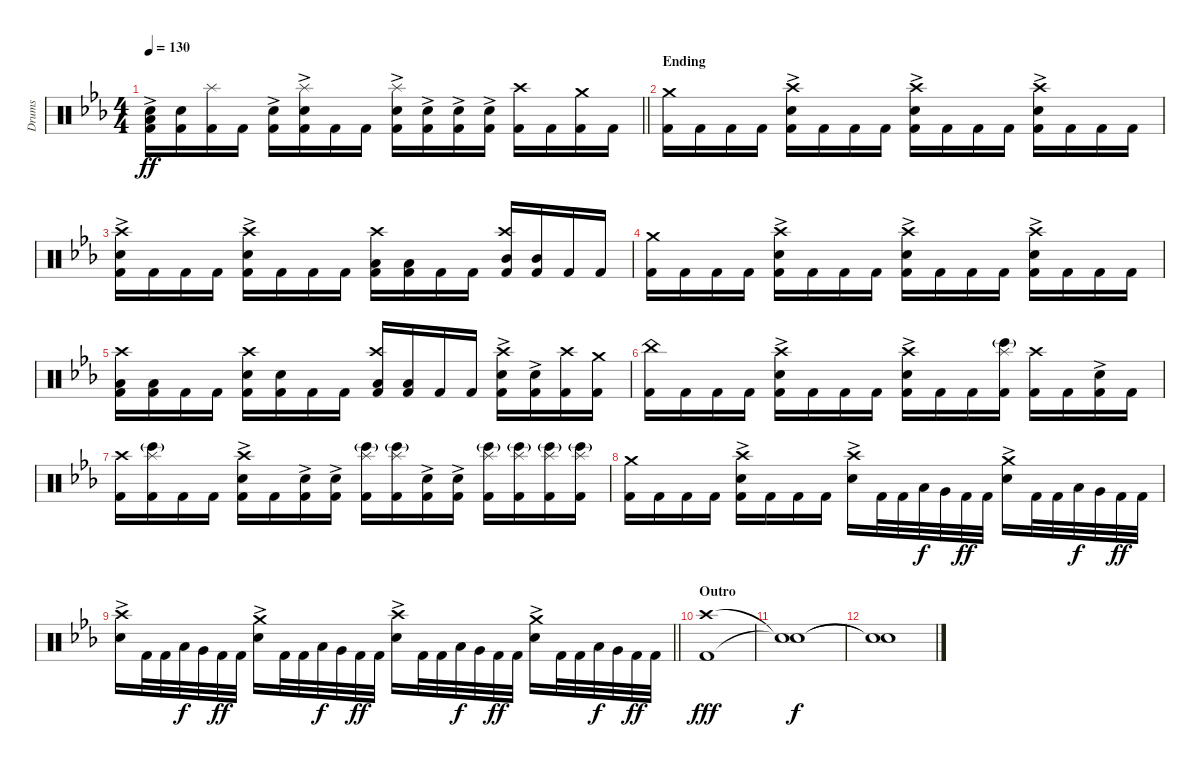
\track ("Drums" "Drums") {instrument percussion}
\staff {score}
\articulation defaults
\ts (4 4)
\tempo 130
\clef neutral
\barLineRight lightlight
\ks cminor
("Low Tom (hit)" "Electric Snare (hit)"{ac} "Kick (hit) 2").16{dy ff} ("Electric Snare (hit)" "Kick (hit) 2").16 ("Splash (hit)" "Kick (hit) 2").16 "Kick (hit) 2".16 ("Electric Snare (hit)"{ac} "Kick (hit) 2").16 ("Splash (hit)" "Electric Snare (hit)"{ac} "Kick (hit) 2").16 "Kick (hit) 2".16 "Kick (hit) 2".16 ("Splash (hit)" "Electric Snare (hit)"{ac} "Kick (hit) 2").16 ("Electric Snare (hit)"{ac} "Kick (hit) 2").16 ("Electric Snare (hit)"{ac} "Kick (hit) 2").16 ("Electric Snare (hit)"{ac} "Kick (hit) 2").16 ("Crash high (hit)" "Kick (hit) 2").16 "Kick (hit) 2".16 ("Crash medium (hit)" "Kick (hit) 2").16 "Kick (hit) 2".16 |
\section ("" "Ending")
("Crash medium (hit)" "Kick (hit) 2").16 "Kick (hit) 2".16 "Kick (hit) 2".16 "Kick (hit) 2".16 ("Crash high (hit)" "Electric Snare (hit)"{ac} "Kick (hit) 2").16 "Kick (hit) 2".16 "Kick (hit) 2".16 "Kick (hit) 2".16 ("Crash high (hit)" "Electric Snare (hit)"{ac} "Kick (hit) 2").16 "Kick (hit) 2".16 "Kick (hit) 2".16 "Kick (hit) 2".16 ("Crash high (hit)" "Electric Snare (hit)"{ac} "Kick (hit) 2").16 "Kick (hit) 2".16 "Kick (hit) 2".16 "Kick (hit) 2".16 |
("Crash high (hit)" "Electric Snare (hit)"{ac} "Kick (hit) 2").16 "Kick (hit) 2".16 "Kick (hit) 2".16 "Kick (hit) 2".16 ("Crash high (hit)" "Electric Snare (hit)"{ac} "Kick (hit) 2").16 "Kick (hit) 2".16 "Kick (hit) 2".16 "Kick (hit) 2".16 ("Crash high (hit)" "Low Tom (hit)" "Kick (hit) 2").16 ("Low Tom (hit)" "Kick (hit) 2").16 "Kick (hit) 2".16 "Kick (hit) 2".16 ("Crash high (hit)" "Mid Tom (hit)" "Kick (hit) 2").16 ("Mid Tom (hit)" "Kick (hit) 2").16 "Kick (hit) 2".16 "Kick (hit) 2".16 |
("Crash medium (hit)" "Kick (hit) 2").16 "Kick (hit) 2".16 "Kick (hit) 2".16 "Kick (hit) 2".16 ("Crash high (hit)" "Electric Snare (hit)"{ac} "Kick (hit) 2").16 "Kick (hit) 2".16 "Kick (hit) 2".16 "Kick (hit) 2".16 ("Crash high (hit)" "Electric Snare (hit)"{ac} "Kick (hit) 2").16 "Kick (hit) 2".16 "Kick (hit) 2".16 "Kick (hit) 2".16 ("Crash high (hit)" "Electric Snare (hit)"{ac} "Kick (hit) 2").16 "Kick (hit) 2".16 "Kick (hit) 2".16 "Kick (hit) 2".16 |
("Crash high (hit)" "Low Tom (hit)" "Kick (hit) 2").16 ("Low Tom (hit)" "Kick (hit) 2").16 "Kick (hit) 2".16 "Kick (hit) 2".16 ("Crash high (hit)" "Electric Snare (hit)" "Kick (hit) 2").16 ("Electric Snare (hit)" "Kick (hit) 2").16 "Kick (hit) 2".16 "Kick (hit) 2".16 ("Crash high (hit)" "Low Floor Tom (hit)" "Kick (hit) 2").16 ("Low Floor Tom (hit)" "Kick (hit) 2").16 "Kick (hit) 2".16 "Kick (hit) 2".16 ("Crash high (hit)" "Electric Snare (hit)"{ac} "Kick (hit) 2").16 ("Electric Snare (hit)"{ac} "Kick (hit) 2").16 ("Crash high (hit)" "Kick (hit) 2").16 ("Crash medium (hit)" "Kick (hit) 2").16 |
("China (hit)" "Kick (hit) 2").16 "Kick (hit) 2".16 "Kick (hit) 2".16 "Kick (hit) 2".16 ("Crash high (hit)" "Electric Snare (hit)"{ac} "Kick (hit) 2").16 "Kick (hit) 2".16 "Kick (hit) 2".16 "Kick (hit) 2".16 ("Crash high (hit)" "Electric Snare (hit)"{ac} "Kick (hit) 2").16 "Kick (hit) 2".16 "Kick (hit) 2".16 ("Bongo High (hit)"{g} "Splash (hit)" "Kick (hit) 2").16 ("Crash high (hit)" "Kick (hit) 2").16 "Kick (hit) 2".16 ("Electric Snare (hit)"{ac} "Kick (hit) 2").16 "Kick (hit) 2".16 |
("Crash high (hit)" "Kick (hit) 2").16 ("Bongo High (hit)"{g} "Splash (hit)" "Kick (hit) 2").16 "Kick (hit) 2".16 "Kick (hit) 2".16 ("Crash high (hit)" "Electric Snare (hit)"{ac} "Kick (hit) 2").16 "Kick (hit) 2".16 ("Electric Snare (hit)"{ac} "Kick (hit) 2").16 ("Electric Snare (hit)"{ac} "Kick (hit) 2").16 ("Bongo High (hit)"{g} "Splash (hit)" "Kick (hit) 2").16 ("Bongo High (hit)"{g} "Splash (hit)" "Kick (hit) 2").16 ("Electric Snare (hit)"{ac} "Kick (hit) 2").16 ("Electric Snare (hit)"{ac} "Kick (hit) 2").16 ("Bongo High (hit)"{g} "Splash (hit)" "Kick (hit) 2").16 ("Bongo High (hit)"{g} "Splash (hit)" "Kick (hit) 2").16 ("Bongo High (hit)"{g} "Splash (hit)" "Kick (hit) 2").16 ("Bongo High (hit)"{g} "Splash (hit)" "Kick (hit) 2").16 |
("Crash medium (hit)" "Kick (hit) 2").16 "Kick (hit) 2".16 "Kick (hit) 2".16 "Kick (hit) 2".16 ("Crash high (hit)" "Electric Snare (hit)"{ac} "Kick (hit) 2").16 "Kick (hit) 2".16 "Kick (hit) 2".16 "Kick (hit) 2".16 ("Crash high (hit)" "Electric Snare (hit)"{ac}).16 "Kick (hit) 2".32 "Kick (hit) 2".32 "Low Tom (hit)".32{dy f} "Very Low Tom (hit)".32 "Kick (hit) 2".32{dy ff} "Kick (hit) 2".32 ("Crash medium (hit)" "Electric Snare (hit)"{ac}).16 "Kick (hit) 2".32 "Kick (hit) 2".32 "Low Tom (hit)".32{dy f} "Very Low Tom (hit)".32 "Kick (hit) 2".32{dy ff} "Kick (hit) 2".32 |
\barLineRight lightlight
("Crash high (hit)" "Electric Snare (hit)"{ac}).16 "Kick (hit) 2".32 "Kick (hit) 2".32 "Low Tom (hit)".32{dy f} "Very Low Tom (hit)".32 "Kick (hit) 2".32{dy ff} "Kick (hit) 2".32 ("Crash medium (hit)" "Electric Snare (hit)"{ac}).16 "Kick (hit) 2".32 "Kick (hit) 2".32 "Low Tom (hit)".32{dy f} "Very Low Tom (hit)".32 "Kick (hit) 2".32{dy ff} "Kick (hit) 2".32 ("Crash high (hit)" "Electric Snare (hit)"{ac}).16 "Kick (hit) 2".32 "Kick (hit) 2".32 "Low Tom (hit)".32{dy f} "Very Low Tom (hit)".32 "Kick (hit) 2".32{dy ff} "Kick (hit) 2".32 ("Crash medium (hit)" "Electric Snare (hit)"{ac}).16 "Kick (hit) 2".32 "Kick (hit) 2".32 "Low Tom (hit)".32{dy f} "Very Low Tom (hit)".32 "Kick (hit) 2".32{dy ff} "Kick (hit) 2".32 |
\section ("" "Outro")
("Crash high (hit)" "Kick (hit) 2").1{dy fff} |
("Snare (hit)"{t} "Snare (hit)"{t}).1{dy f} |
("Snare (hit)"{t} "Snare (hit)"{t}).1
